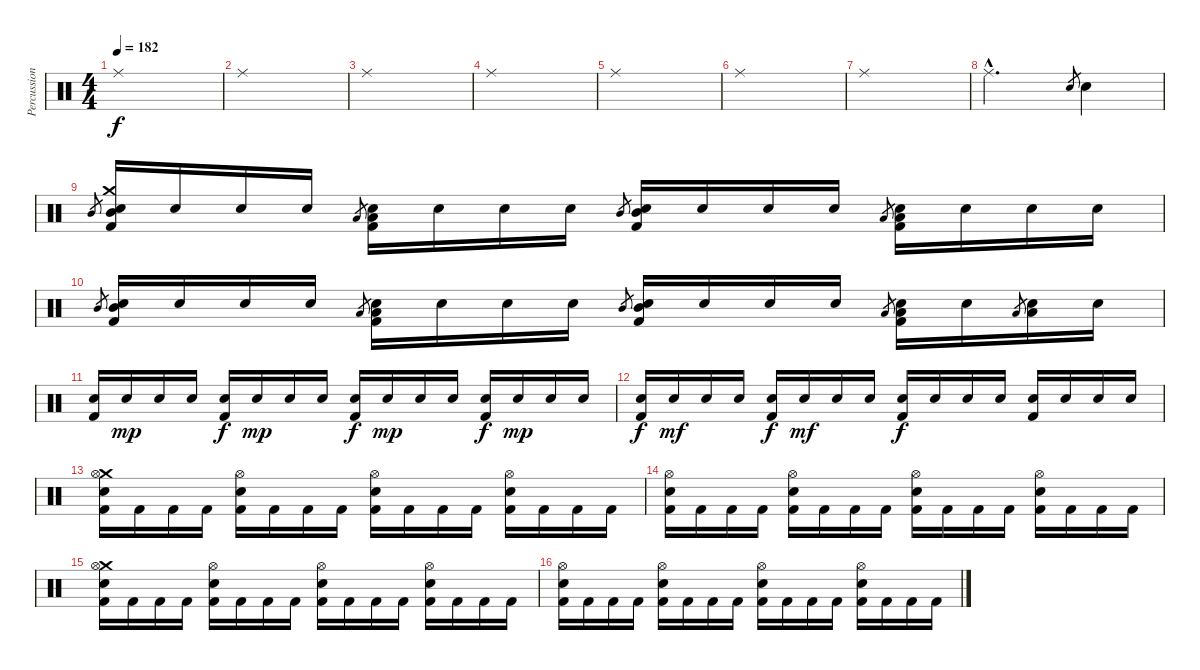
\track ("Percussion" "Percussion") {instrument percussion}
\staff {score}
\articulation defaults
\ts (4 4)
\tempo 182
\clef neutral
\ks c "Ride (middle)".1{dy f}
|
"Ride (middle)".1 |
"Ride (middle)".1 |
"Ride (middle)".1 |
"Ride (middle)".1 |
"Ride (middle)".1 |
"Ride (middle)".1 |
"Ride (middle)"{hac}.2{d} "Electric Snare (hit)".8{gr} "Electric Snare (hit)".4 |
"Mid Tom (hit)".8{gr} ("Crash medium (hit)" "Mid Tom (hit)" "Electric Snare (hit)" "Kick (hit) 2").16 "Electric Snare (hit)".16 "Electric Snare (hit)".16 "Electric Snare (hit)".16 "Low Tom (hit)".8{gr} ("Low Tom (hit)" "Electric Snare (hit)" "Kick (hit) 2").16 "Electric Snare (hit)".16 "Electric Snare (hit)".16 "Electric Snare (hit)".16 "Mid Tom (hit)".8{gr} ("Mid Tom (hit)" "Electric Snare (hit)" "Kick (hit) 2").16 "Electric Snare (hit)".16 "Electric Snare (hit)".16 "Electric Snare (hit)".16 "Low Tom (hit)".8{gr} ("Low Tom (hit)" "Electric Snare (hit)" "Kick (hit) 2").16 "Electric Snare (hit)".16 "Electric Snare (hit)".16 "Electric Snare (hit)".16 |
"Mid Tom (hit)".8{gr} ("Mid Tom (hit)" "Electric Snare (hit)" "Kick (hit) 2").16 "Electric Snare (hit)".16 "Electric Snare (hit)".16 "Electric Snare (hit)".16 "Low Tom (hit)".8{gr} ("Low Tom (hit)" "Electric Snare (hit)" "Kick (hit) 2").16 "Electric Snare (hit)".16 "Electric Snare (hit)".16 "Electric Snare (hit)".16 "Mid Tom (hit)".8{gr} ("Mid Tom (hit)" "Electric Snare (hit)" "Kick (hit) 2").16 "Electric Snare (hit)".16 "Electric Snare (hit)".16 "Electric Snare (hit)".16 "Low Tom (hit)".8{gr} ("Low Tom (hit)" "Electric Snare (hit)" "Kick (hit) 2").16 "Electric Snare (hit)".16 "Low Tom (hit)".8{gr} ("Low Tom (hit)" "Electric Snare (hit)").16 "Electric Snare (hit)".16 |
("Electric Snare (hit)" "Kick (hit) 2").16 "Electric Snare (hit)".16{dy mp} "Electric Snare (hit)".16 "Electric Snare (hit)".16 ("Electric Snare (hit)" "Kick (hit) 2").16{dy f} "Electric Snare (hit)".16{dy mp} "Electric Snare (hit)".16 "Electric Snare (hit)".16 ("Electric Snare (hit)" "Kick (hit) 2").16{dy f} "Electric Snare (hit)".16{dy mp} "Electric Snare (hit)".16 "Electric Snare (hit)".16 ("Electric Snare (hit)" "Kick (hit) 2").16{dy f} "Electric Snare (hit)".16{dy mp} "Electric Snare (hit)".16 "Electric Snare (hit)".16 |
("Electric Snare (hit)" "Kick (hit) 2").16{dy f} "Electric Snare (hit)".16{dy mf} "Electric Snare (hit)".16 "Electric Snare (hit)".16 ("Electric Snare (hit)" "Kick (hit) 2").16{dy f} "Electric Snare (hit)".16{dy mf} "Electric Snare (hit)".16 "Electric Snare (hit)".16 ("Electric Snare (hit)" "Kick (hit) 2").16{dy f} "Electric Snare (hit)".16 "Electric Snare (hit)".16 "Electric Snare (hit)".16 ("Electric Snare (hit)" "Kick (hit) 2").16 "Electric Snare (hit)".16 "Electric Snare (hit)".16 "Electric Snare (hit)".16 |
("Crash medium (hit)" "Hi-Hat (open)" "Electric Snare (hit)" "Kick (hit) 2").16 "Kick (hit) 2".16 "Kick (hit) 2".16 "Kick (hit) 2".16 ("Hi-Hat (open)" "Electric Snare (hit)" "Kick (hit) 2").16 "Kick (hit) 2".16 "Kick (hit) 2".16 "Kick (hit) 2".16 ("Hi-Hat (open)" "Electric Snare (hit)" "Kick (hit) 2").16 "Kick (hit) 2".16 "Kick (hit) 2".16 "Kick (hit) 2".16 ("Hi-Hat (open)" "Electric Snare (hit)" "Kick (hit) 2").16 "Kick (hit) 2".16 "Kick (hit) 2".16 "Kick (hit) 2".16 |
("Hi-Hat (open)" "Electric Snare (hit)" "Kick (hit) 2").16 "Kick (hit) 2".16 "Kick (hit) 2".16 "Kick (hit) 2".16 ("Hi-Hat (open)" "Electric Snare (hit)" "Kick (hit) 2").16 "Kick (hit) 2".16 "Kick (hit) 2".16 "Kick (hit) 2".16 ("Hi-Hat (open)" "Electric Snare (hit)" "Kick (hit) 2").16 "Kick (hit) 2".16 "Kick (hit) 2".16 "Kick (hit) 2".16 ("Hi-Hat (open)" "Electric Snare (hit)" "Kick (hit) 2").16 "Kick (hit) 2".16 "Kick (hit) 2".16 "Kick (hit) 2".16 |
("Crash medium (hit)" "Hi-Hat (open)" "Electric Snare (hit)" "Kick (hit) 2").16 "Kick (hit) 2".16 "Kick (hit) 2".16 "Kick (hit) 2".16 ("Hi-Hat (open)" "Electric Snare (hit)" "Kick (hit) 2").16 "Kick (hit) 2".16 "Kick (hit) 2".16 "Kick (hit) 2".16 ("Hi-Hat (open)" "Electric Snare (hit)" "Kick (hit) 2").16 "Kick (hit) 2".16 "Kick (hit) 2".16 "Kick (hit) 2".16 ("Hi-Hat (open)" "Electric Snare (hit)" "Kick (hit) 2").16 "Kick (hit) 2".16 "Kick (hit) 2".16 "Kick (hit) 2".16 |
("Hi-Hat (open)" "Electric Snare (hit)" "Kick (hit) 2").16 "Kick (hit) 2".16 "Kick (hit) 2".16 "Kick (hit) 2".16 ("Hi-Hat (open)" "Electric Snare (hit)" "Kick (hit) 2").16 "Kick (hit) 2".16 "Kick (hit) 2".16 "Kick (hit) 2".16 ("Hi-Hat (open)" "Electric Snare (hit)" "Kick (hit) 2").16 "Kick (hit) 2".16 "Kick (hit) 2".16 "Kick (hit) 2".16 ("Hi-Hat (open)" "Electric Snare (hit)" "Kick (hit) 2").16 "Kick (hit) 2".16 "Kick (hit) 2".16 "Kick (hit) 2".16
